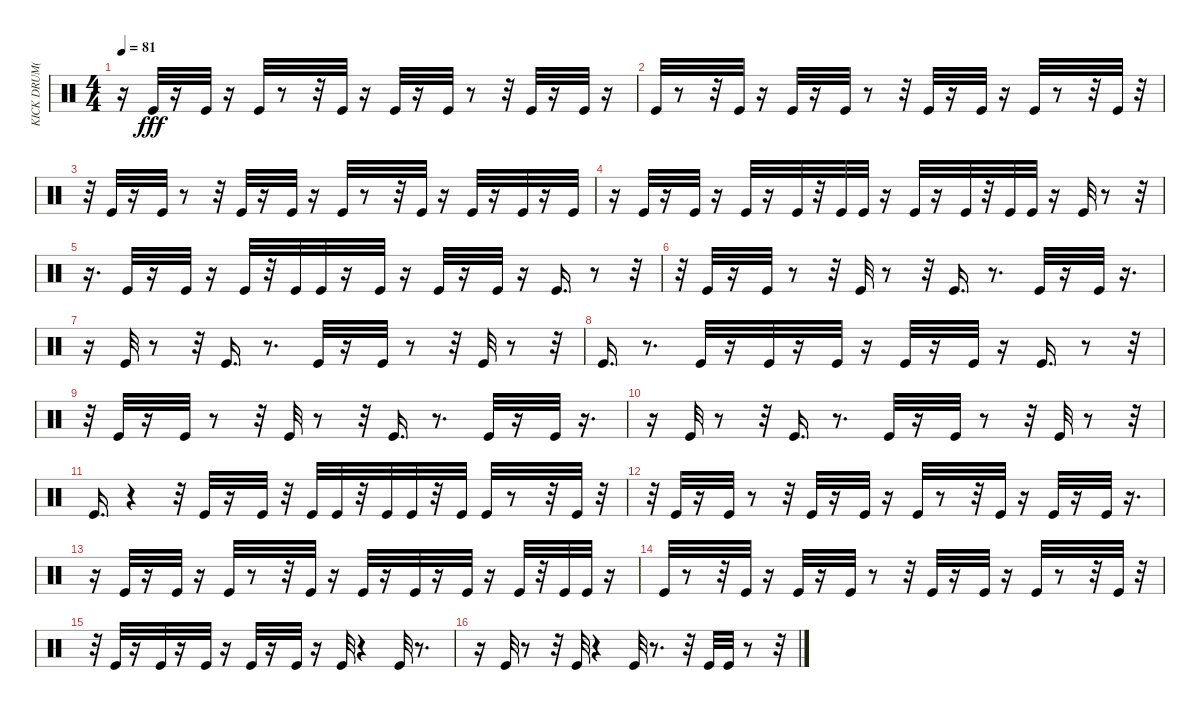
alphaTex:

\track ("KICK DRUM(ACOU)" "KICK DRUM(") {instrument percussion}
\staff {score}
\articulation defaults
\ts (4 4)
\tempo 81
\clef neutral
\ks c
r.16{dy fff} "Kick (hit)".32 r.16 "Kick (hit)".32 r.16 "Kick (hit)".32 r.8 r.32 "Kick (hit)".32 r.16 "Kick (hit)".32 r.16 "Kick (hit)".32 r.8 r.32 "Kick (hit)".32 r.16 "Kick (hit)".32 r.16 |
"Kick (hit)".32 r.8 r.32 "Kick (hit)".32 r.16 "Kick (hit)".32 r.16 "Kick (hit)".32 r.8 r.32 "Kick (hit)".32 r.16 "Kick (hit)".32 r.16 "Kick (hit)".32 r.8 r.32 "Kick (hit)".32 r.32 |
r.32 "Kick (hit)".32 r.16 "Kick (hit)".32 r.8 r.32 "Kick (hit)".32 r.16 "Kick (hit)".32 r.16 "Kick (hit)".32 r.8 r.32 "Kick (hit)".32 r.16 "Kick (hit)".32 r.16 "Kick (hit)".32 r.16 "Kick (hit)".32 |
r.16 "Kick (hit)".32 r.16 "Kick (hit)".32 r.16 "Kick (hit)".32 r.16 "Kick (hit)".32 r.32 "Kick (hit)".32 "Kick (hit)".32 r.16 "Kick (hit)".32 r.16 "Kick (hit)".32 r.32 "Kick (hit)".32 "Kick (hit)".32 r.16 "Kick (hit)".32 r.8 r.32 |
r.16{d} "Kick (hit)".32 r.16 "Kick (hit)".32 r.16 "Kick (hit)".32 r.32 "Kick (hit)".32 "Kick (hit)".32 r.16 "Kick (hit)".32 r.16 "Kick (hit)".32 r.16 "Kick (hit)".32 r.16 "Kick (hit)".16{d} r.8 r.32 |
r.32 "Kick (hit)".32 r.16 "Kick (hit)".32 r.8 r.32 "Kick (hit)".32 r.8 r.32 "Kick (hit)".16{d} r.8{d} "Kick (hit)".32 r.16 "Kick (hit)".32 r.16{d} |
r.16 "Kick (hit)".32 r.8 r.32 "Kick (hit)".16{d} r.8{d} "Kick (hit)".32 r.16 "Kick (hit)".32 r.8 r.32 "Kick (hit)".32 r.8 r.32 |
"Kick (hit)".16{d} r.8{d} "Kick (hit)".32 r.16 "Kick (hit)".32 r.16 "Kick (hit)".32 r.16 "Kick (hit)".32 r.16 "Kick (hit)".32 r.16 "Kick (hit)".16{d} r.8 r.32 |
r.32 "Kick (hit)".32 r.16 "Kick (hit)".32 r.8 r.32 "Kick (hit)".32 r.8 r.32 "Kick (hit)".16{d} r.8{d} "Kick (hit)".32 r.16 "Kick (hit)".32 r.16{d} |
r.16 "Kick (hit)".32 r.8 r.32 "Kick (hit)".16{d} r.8{d} "Kick (hit)".32 r.16 "Kick (hit)".32 r.8 r.32 "Kick (hit)".32 r.8 r.32 |
"Kick (hit)".16{d} r.4 r.32 "Kick (hit)".32 r.16 "Kick (hit)".32 r.32 "Kick (hit)".32 "Kick (hit)".32 r.32 "Kick (hit)".32 "Kick (hit)".32 r.32 "Kick (hit)".32 "Kick (hit)".32 r.8 r.32 "Kick (hit)".32 r.32 |
r.32 "Kick (hit)".32 r.16 "Kick (hit)".32 r.8 r.32 "Kick (hit)".32 r.16 "Kick (hit)".32 r.16 "Kick (hit)".32 r.8 r.32 "Kick (hit)".32 r.16 "Kick (hit)".32 r.16 "Kick (hit)".32 r.16{d} |
r.16 "Kick (hit)".32 r.16 "Kick (hit)".32 r.16 "Kick (hit)".32 r.8 r.32 "Kick (hit)".32 r.16 "Kick (hit)".32 r.16 "Kick (hit)".32 r.16 "Kick (hit)".32 r.16 "Kick (hit)".32 r.32 "Kick (hit)".32 "Kick (hit)".32 r.16 |
"Kick (hit)".32 r.8 r.32 "Kick (hit)".32 r.16 "Kick (hit)".32 r.16 "Kick (hit)".32 r.8 r.32 "Kick (hit)".32 r.16 "Kick (hit)".32 r.16 "Kick (hit)".32 r.8 r.32 "Kick (hit)".32 r.32 |
r.32 "Kick (hit)".32 r.16 "Kick (hit)".32 r.16 "Kick (hit)".32 r.16 "Kick (hit)".32 r.16 "Kick (hit)".32 r.16 "Kick (hit)".32 r.4 "Kick (hit)".32 r.8{d} |
r.16 "Kick (hit)".32 r.8 r.32 "Kick (hit)".32 r.4 "Kick (hit)".32 r.8{d} r.32 "Kick (hit)".32 "Kick (hit)".32 r.8 r.32
